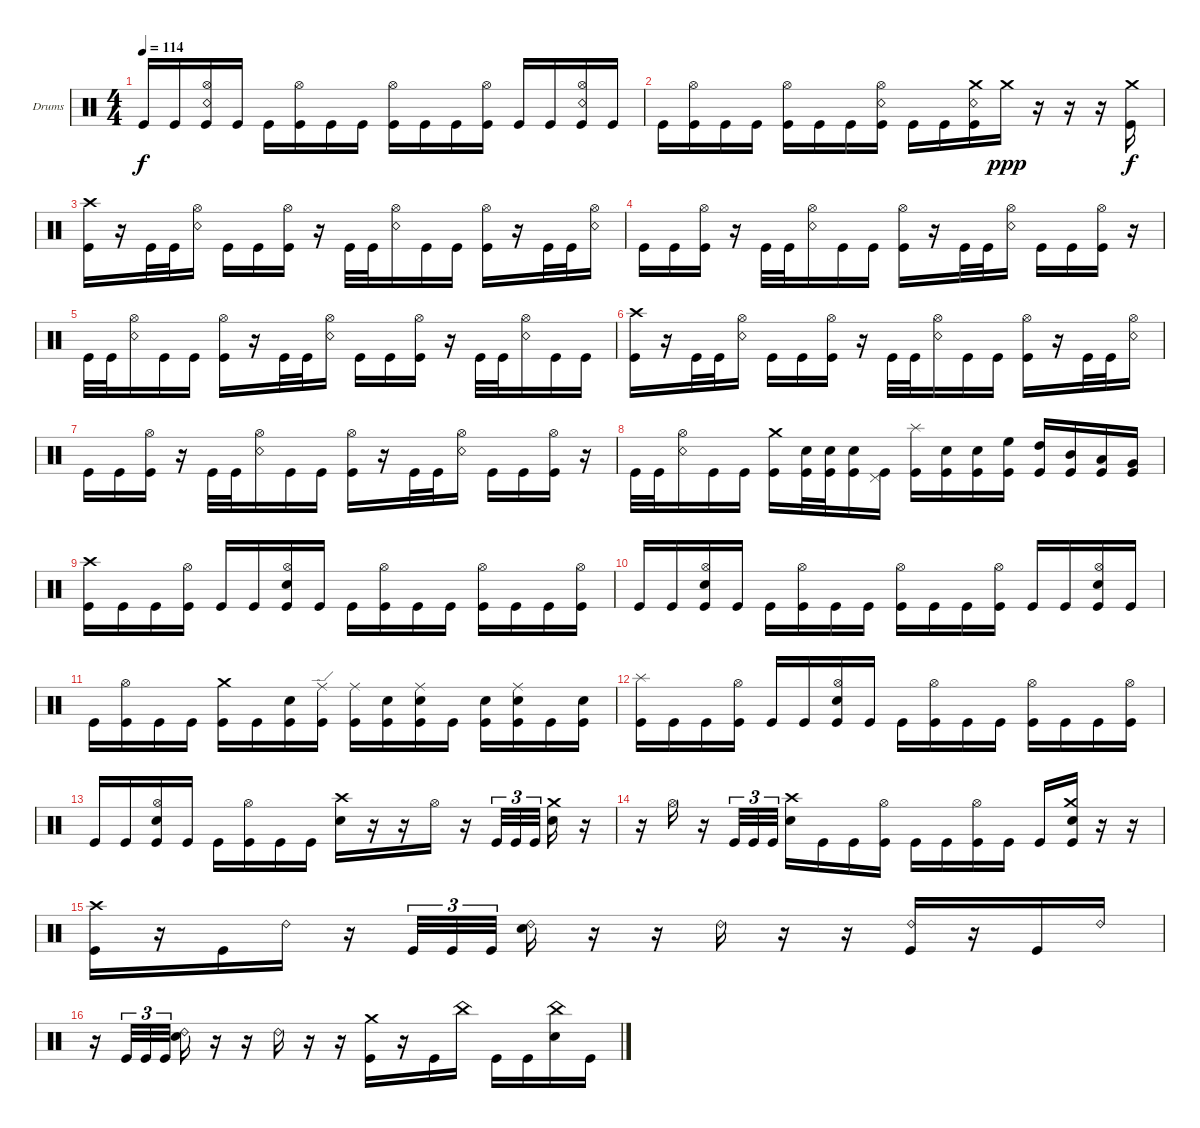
\bracketExtendMode groupsimilarinstruments
\firstSystemTrackNameOrientation horizontal
\otherSystemsTrackNameOrientation horizontal
\track ("Drumkit" "Drums") {instrument percussion}
\staff {score}
\articulation defaults
\ts (4 4)
\tempo 114
\clef neutral
\ks c "Kick (hit)".16{dy f} "Kick (hit)".16
("Hi-Hat (open)" "Snare (rim shot)" "Kick (hit)").16 "Kick (hit)".16 "Kick (hit)".16 ("Hi-Hat (open)" "Kick (hit)").16 "Kick (hit)".16 "Kick (hit)".16 ("Hi-Hat (open)" "Kick (hit)").16 "Kick (hit)".16 "Kick (hit)".16 ("Hi-Hat (open)" "Kick (hit)").16 "Kick (hit)".16 "Kick (hit)".16 ("Hi-Hat (open)" "Snare (rim shot)" "Kick (hit)").16 "Kick (hit)".16 |
"Kick (hit)".16 ("Hi-Hat (open)" "Kick (hit)").16 "Kick (hit)".16 "Kick (hit)".16 ("Hi-Hat (open)" "Kick (hit)").16 "Kick (hit)".16 "Kick (hit)".16 ("Hi-Hat (open)" "Snare (rim shot)" "Kick (hit)").16 "Kick (hit)".16 "Kick (hit)".16 ("Crash medium (hit)" "Snare (rim shot)" "Kick (hit)").16 "Crash medium (hit)".16{dy ppp} r.16 r.16 r.16 ("Crash medium (hit)" "Kick (hit)").16{dy f} |
("Crash high (hit)" "Kick (hit)").16 r.16 "Kick (hit)".32 "Kick (hit)".32 ("Hi-Hat (open)" "Snare (rim shot)").16 "Kick (hit)".16 "Kick (hit)".16 ("Hi-Hat (open)" "Kick (hit)").16 r.16 "Kick (hit)".32 "Kick (hit)".32 ("Hi-Hat (open)" "Snare (rim shot)").16 "Kick (hit)".16 "Kick (hit)".16 ("Hi-Hat (open)" "Kick (hit)").16 r.16 "Kick (hit)".32 "Kick (hit)".32 ("Hi-Hat (open)" "Snare (rim shot)").16 |
"Kick (hit)".16 "Kick (hit)".16 ("Hi-Hat (open)" "Kick (hit)").16 r.16 "Kick (hit)".32 "Kick (hit)".32 ("Hi-Hat (open)" "Snare (rim shot)").16 "Kick (hit)".16 "Kick (hit)".16 ("Hi-Hat (open)" "Kick (hit)").16 r.16 "Kick (hit)".32 "Kick (hit)".32 ("Hi-Hat (open)" "Snare (rim shot)").16 "Kick (hit)".16 "Kick (hit)".16 ("Hi-Hat (open)" "Kick (hit)").16 r.16 |
"Kick (hit)".32 "Kick (hit)".32 ("Hi-Hat (open)" "Snare (rim shot)").16 "Kick (hit)".16 "Kick (hit)".16 ("Hi-Hat (open)" "Kick (hit)").16 r.16 "Kick (hit)".32 "Kick (hit)".32 ("Hi-Hat (open)" "Snare (rim shot)").16 "Kick (hit)".16 "Kick (hit)".16 ("Hi-Hat (open)" "Kick (hit)").16 r.16 "Kick (hit)".32 "Kick (hit)".32 ("Hi-Hat (open)" "Snare (rim shot)").16 "Kick (hit)".16 "Kick (hit)".16 |
("Crash high (hit)" "Kick (hit)").16 r.16 "Kick (hit)".32 "Kick (hit)".32 ("Hi-Hat (open)" "Snare (rim shot)").16 "Kick (hit)".16 "Kick (hit)".16 ("Hi-Hat (open)" "Kick (hit)").16 r.16 "Kick (hit)".32 "Kick (hit)".32 ("Hi-Hat (open)" "Snare (rim shot)").16 "Kick (hit)".16 "Kick (hit)".16 ("Hi-Hat (open)" "Kick (hit)").16 r.16 "Kick (hit)".32 "Kick (hit)".32 ("Hi-Hat (open)" "Snare (rim shot)").16 |
"Kick (hit)".16 "Kick (hit)".16 ("Hi-Hat (open)" "Kick (hit)").16 r.16 "Kick (hit)".32 "Kick (hit)".32 ("Hi-Hat (open)" "Snare (rim shot)").16 "Kick (hit)".16 "Kick (hit)".16 ("Hi-Hat (open)" "Kick (hit)").16 r.16 "Kick (hit)".32 "Kick (hit)".32 ("Hi-Hat (open)" "Snare (rim shot)").16 "Kick (hit)".16 "Kick (hit)".16 ("Hi-Hat (open)" "Kick (hit)").16 r.16 |
"Kick (hit)".32 "Kick (hit)".32 ("Hi-Hat (open)" "Snare (rim shot)").16 "Kick (hit)".16 "Kick (hit)".16 ("Crash medium (hit)" "Kick (hit)").16 ("Snare (hit) 2" "Kick (hit)").32 ("Snare (hit) 2" "Kick (hit)").32 ("Snare (hit) 2" "Kick (hit)").16 ("Pedal Hi-Hat (hit)" "Kick (hit)").16 ("Splash (hit)" "Kick (hit)").16 ("Snare (hit) 2" "Kick (hit)").16 ("Snare (hit) 2" "Kick (hit)").16 ("High Floor Tom (hit)" "Kick (hit)").16 ("High Tom (hit)" "Kick (hit)").16 ("Mid Tom (hit)" "Kick (hit)").16 ("Low Tom (hit)" "Kick (hit)").16 ("Very Low Tom (hit)" "Kick (hit)").16 |
("Crash high (hit)" "Kick (hit)").16 "Kick (hit)".16 "Kick (hit)".16 ("Hi-Hat (open)" "Kick (hit)").16 "Kick (hit)".16 "Kick (hit)".16 ("Hi-Hat (open)" "Snare (hit) 2" "Kick (hit)").16 "Kick (hit)".16 "Kick (hit)".16 ("Hi-Hat (open)" "Kick (hit)").16 "Kick (hit)".16 "Kick (hit)".16 ("Hi-Hat (open)" "Kick (hit)").16 "Kick (hit)".16 "Kick (hit)".16 ("Hi-Hat (open)" "Kick (hit)").16 |
"Kick (hit)".16 "Kick (hit)".16 ("Hi-Hat (open)" "Snare (hit) 2" "Kick (hit)").16 "Kick (hit)".16 "Kick (hit)".16 ("Hi-Hat (open)" "Kick (hit)").16 "Kick (hit)".16 "Kick (hit)".16 ("Hi-Hat (open)" "Kick (hit)").16 "Kick (hit)".16 "Kick (hit)".16 ("Hi-Hat (open)" "Kick (hit)").16 "Kick (hit)".16 "Kick (hit)".16 ("Hi-Hat (open)" "Snare (hit) 2" "Kick (hit)").16 "Kick (hit)".16 |
"Kick (hit)".16 ("Hi-Hat (open)" "Kick (hit)").16 "Kick (hit)".16 "Kick (hit)".16 ("Crash medium (hit)" "Kick (hit)").16 "Kick (hit)".16 ("Snare (hit) 2" "Kick (hit)").16 ("Ride (edge)" "Kick (hit)").16 ("Ride (middle)" "Kick (hit)").16 ("Snare (hit) 2" "Kick (hit)").16 ("Ride (middle)" "Snare (hit) 2" "Kick (hit)").16 "Kick (hit)".16 ("Snare (hit) 2" "Kick (hit)").16 ("Ride (middle)" "Snare (hit) 2" "Kick (hit)").16 "Kick (hit)".16 ("Snare (hit) 2" "Kick (hit)").16 |
("Splash (hit)" "Kick (hit)").16 "Kick (hit)".16 "Kick (hit)".16 ("Hi-Hat (open)" "Kick (hit)").16 "Kick (hit)".16 "Kick (hit)".16 ("Hi-Hat (open)" "Snare (hit) 2" "Kick (hit)").16 "Kick (hit)".16 "Kick (hit)".16 ("Hi-Hat (open)" "Kick (hit)").16 "Kick (hit)".16 "Kick (hit)".16 ("Hi-Hat (open)" "Kick (hit)").16 "Kick (hit)".16 "Kick (hit)".16 ("Hi-Hat (open)" "Kick (hit)").16 |
"Kick (hit)".16 "Kick (hit)".16 ("Hi-Hat (open)" "Snare (hit) 2" "Kick (hit)").16 "Kick (hit)".16 "Kick (hit)".16 ("Hi-Hat (open)" "Kick (hit)").16 "Kick (hit)".16 "Kick (hit)".16 ("Crash high (hit)" "Snare (hit) 2").16 r.16 r.16 "Hi-Hat (open)".16 r.16 "Kick (hit)".32{tu (3 2)} "Kick (hit)".32{tu (3 2)} "Kick (hit)".32{tu (3 2)} ("Crash medium (hit)" "Snare (hit) 2").16 r.16 |
r.16 "Hi-Hat (open)".16 r.16 "Kick (hit)".32{tu (3 2)} "Kick (hit)".32{tu (3 2)} "Kick (hit)".32{tu (3 2)} ("Crash high (hit)" "Snare (hit) 2").16 "Kick (hit)".16 "Kick (hit)".16 ("Hi-Hat (open)" "Kick (hit)").16 "Kick (hit)".16 "Kick (hit)".16 ("Hi-Hat (open)" "Kick (hit)").16 "Kick (hit)".16 "Kick (hit)".16 ("Crash medium (hit)" "Snare (hit) 2" "Kick (hit)").16 r.16 r.16 |
("Crash high (hit)" "Kick (hit)").16 r.16 "Kick (hit)".16 "Ride (bell) 2".16 r.16 "Kick (hit)".32{tu (3 2)} "Kick (hit)".32{tu (3 2)} "Kick (hit)".32{tu (3 2)} ("Ride (bell) 2" "Snare (hit) 2").16 r.16 r.16 "Ride (bell) 2".16 r.16 r.16 ("Ride (bell) 2" "Kick (hit)").16 r.16 "Kick (hit)".16 "Ride (bell) 2".16 |
r.16 "Kick (hit)".32{tu (3 2)} "Kick (hit)".32{tu (3 2)} "Kick (hit)".32{tu (3 2)} ("Ride (bell) 2" "Snare (hit) 2").16 r.16 r.16 "Ride (bell) 2".16 r.16 r.16 ("Crash medium (hit)" "Kick (hit)").16 r.16 "Kick (hit)".16 "China (hit)".16 "Kick (hit)".16 "Kick (hit)".16 ("China (hit)" "Snare (hit) 2").16 "Kick (hit)".16
